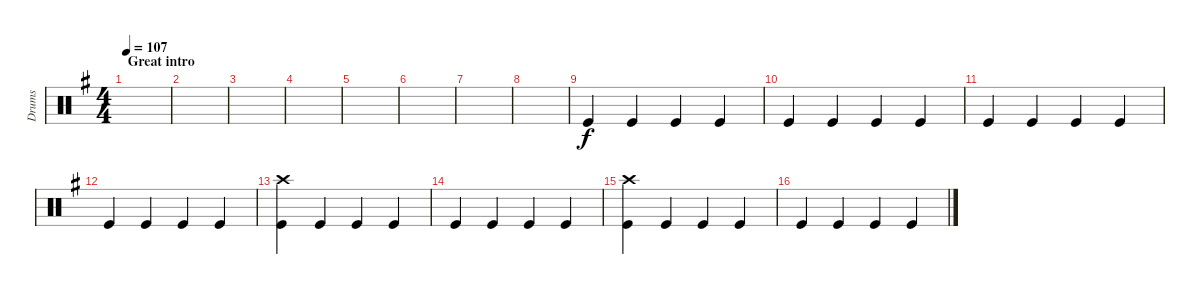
\track ("Drums" "Drums") {instrument percussion}
\staff {score}
\articulation defaults
\ts (4 4)
\section ("" "Great intro")
\tempo 107
\clef neutral
\ks g
|
|
|
|
|
|
|
|
"Kick (hit)".4 "Kick (hit)".4 "Kick (hit)".4 "Kick (hit)".4 |
"Kick (hit)".4 "Kick (hit)".4 "Kick (hit)".4 "Kick (hit)".4 |
"Kick (hit)".4 "Kick (hit)".4 "Kick (hit)".4 "Kick (hit)".4 |
"Kick (hit)".4 "Kick (hit)".4 "Kick (hit)".4 "Kick (hit)".4 |
("Crash high (hit)" "Kick (hit)").4 "Kick (hit)".4 "Kick (hit)".4 "Kick (hit)".4 |
"Kick (hit)".4 "Kick (hit)".4 "Kick (hit)".4 "Kick (hit)".4 |
("Crash high (hit)" "Kick (hit)").4 "Kick (hit)".4 "Kick (hit)".4 "Kick (hit)".4 |
"Kick (hit)".4 "Kick (hit)".4 "Kick (hit)".4 "Kick (hit)".4
